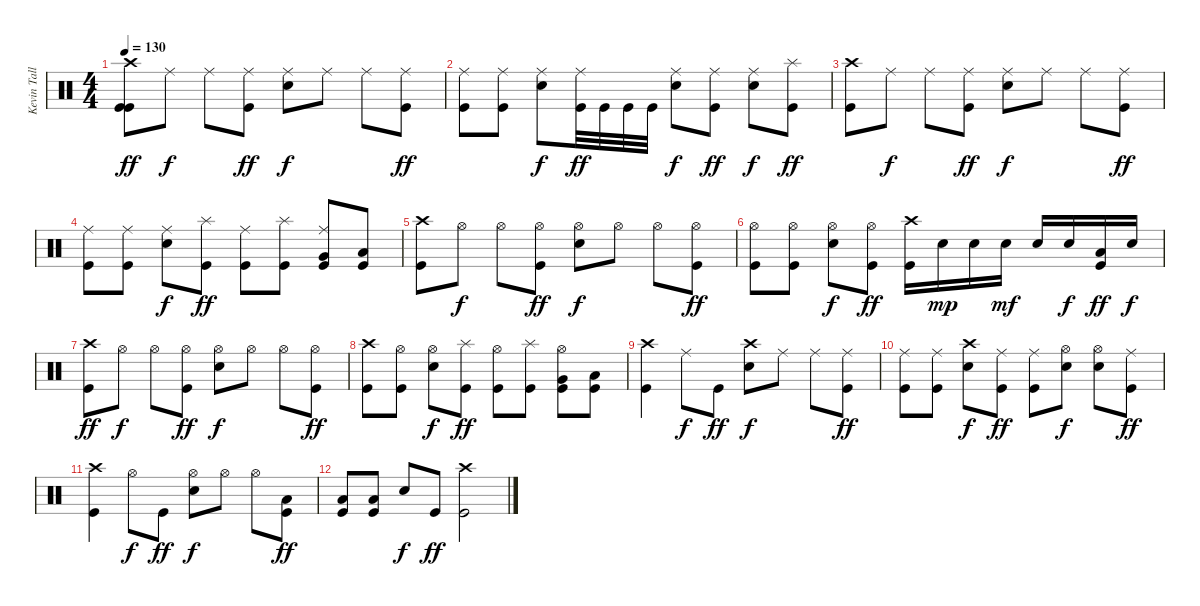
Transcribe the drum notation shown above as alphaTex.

\track ("Kevin Talley" "Kevin Tall") {instrument percussion}
\staff {score}
\articulation defaults
\ts (4 4)
\tempo 130
\clef neutral
\ks c
("Crash high (hit)" "Kick (hit)" "Kick (hit)").8{dy ff} "Ride (middle)".8{dy f} "Ride (middle)".8 ("Ride (middle)" "Kick (hit)").8{dy ff} ("Ride (middle)" "Electric Snare (hit)").8{dy f} "Ride (middle)".8 "Ride (middle)".8 ("Ride (middle)" "Kick (hit)").8{dy ff} |
("Ride (middle)" "Kick (hit)").8 ("Ride (middle)" "Kick (hit)").8 ("Ride (middle)" "Electric Snare (hit)").8{dy f} ("Ride (middle)" "Kick (hit)").32{dy ff} "Kick (hit)".32 "Kick (hit)".32 "Kick (hit)".32 ("Ride (middle)" "Electric Snare (hit)").8{dy f} ("Ride (middle)" "Kick (hit)").8{dy ff} ("Ride (middle)" "Electric Snare (hit)").8{dy f} ("Splash (hit)" "Kick (hit)").8{dy ff} |
("Crash high (hit)" "Kick (hit)").8 "Ride (middle)".8{dy f} "Ride (middle)".8 ("Ride (middle)" "Kick (hit)").8{dy ff} ("Ride (middle)" "Electric Snare (hit)").8{dy f} "Ride (middle)".8 "Ride (middle)".8 ("Ride (middle)" "Kick (hit)").8{dy ff} |
("Ride (middle)" "Kick (hit)").8 ("Ride (middle)" "Kick (hit)").8 ("Ride (middle)" "Electric Snare (hit)").8{dy f} ("Splash (hit)" "Kick (hit)").8{dy ff} ("Ride (middle)" "Kick (hit)").8 ("Splash (hit)" "Kick (hit)").8 ("Ride (middle)" "Very Low Tom (hit)" "Kick (hit)").8 ("Low Floor Tom (hit)" "Kick (hit)").8 |
("Crash high (hit)" "Kick (hit)").8 "Hi-Hat (open)".8{dy f} "Hi-Hat (open)".8 ("Hi-Hat (open)" "Kick (hit)").8{dy ff} ("Hi-Hat (open)" "Electric Snare (hit)").8{dy f} "Hi-Hat (open)".8 "Hi-Hat (open)".8 ("Hi-Hat (open)" "Kick (hit)").8{dy ff} |
("Hi-Hat (open)" "Kick (hit)").8 ("Hi-Hat (open)" "Kick (hit)").8 ("Hi-Hat (open)" "Electric Snare (hit)").8{dy f} ("Hi-Hat (open)" "Kick (hit)").8{dy ff} ("Crash high (hit)" "Kick (hit)").16 "Electric Snare (hit)".16{dy mp} "Electric Snare (hit)".16 "Electric Snare (hit)".16{dy mf} "Electric Snare (hit)".16 "Electric Snare (hit)".16{dy f} ("Low Floor Tom (hit)" "Kick (hit)").16{dy ff} "Electric Snare (hit)".16{dy f} |
("Crash high (hit)" "Kick (hit)").8{dy ff} "Hi-Hat (open)".8{dy f} "Hi-Hat (open)".8 ("Hi-Hat (open)" "Kick (hit)").8{dy ff} ("Hi-Hat (open)" "Electric Snare (hit)").8{dy f} "Hi-Hat (open)".8 "Hi-Hat (open)".8 ("Hi-Hat (open)" "Kick (hit)").8{dy ff} |
("Crash high (hit)" "Kick (hit)").8 ("Hi-Hat (open)" "Kick (hit)").8 ("Hi-Hat (open)" "Electric Snare (hit)").8{dy f} ("Splash (hit)" "Kick (hit)").8{dy ff} ("Hi-Hat (open)" "Kick (hit)").8 ("Splash (hit)" "Kick (hit)").8 ("Hi-Hat (open)" "Very Low Tom (hit)" "Kick (hit)").8 ("Low Floor Tom (hit)" "Kick (hit)").8 |
("Crash high (hit)" "Kick (hit)").4 "Ride (middle)".8{dy f} "Kick (hit)".8{dy ff} ("Crash high (hit)" "Electric Snare (hit)").8{dy f} "Ride (middle)".8 "Ride (middle)".8 ("Ride (middle)" "Kick (hit)").8{dy ff} |
("Ride (middle)" "Kick (hit)").8 ("Ride (middle)" "Kick (hit)").8 ("Crash high (hit)" "Electric Snare (hit)").8{dy f} ("Ride (middle)" "Kick (hit)").8{dy ff} ("Ride (middle)" "Kick (hit)").8 ("Hi-Hat (open)" "Electric Snare (hit)").8{dy f} ("Hi-Hat (open)" "Electric Snare (hit)").8 ("Ride (middle)" "Kick (hit)").8{dy ff} |
("Crash high (hit)" "Kick (hit)").4 "Hi-Hat (open)".8{dy f} "Kick (hit)".8{dy ff} ("Hi-Hat (open)" "Electric Snare (hit)").8{dy f} "Hi-Hat (open)".8 "Hi-Hat (open)".8 ("Low Floor Tom (hit)" "Kick (hit)").8{dy ff} |
("Low Floor Tom (hit)" "Kick (hit)").8 ("Low Floor Tom (hit)" "Kick (hit)").8 "Electric Snare (hit)".8{dy f} "Kick (hit)".8{dy ff} ("Crash high (hit)" "Kick (hit)").2
